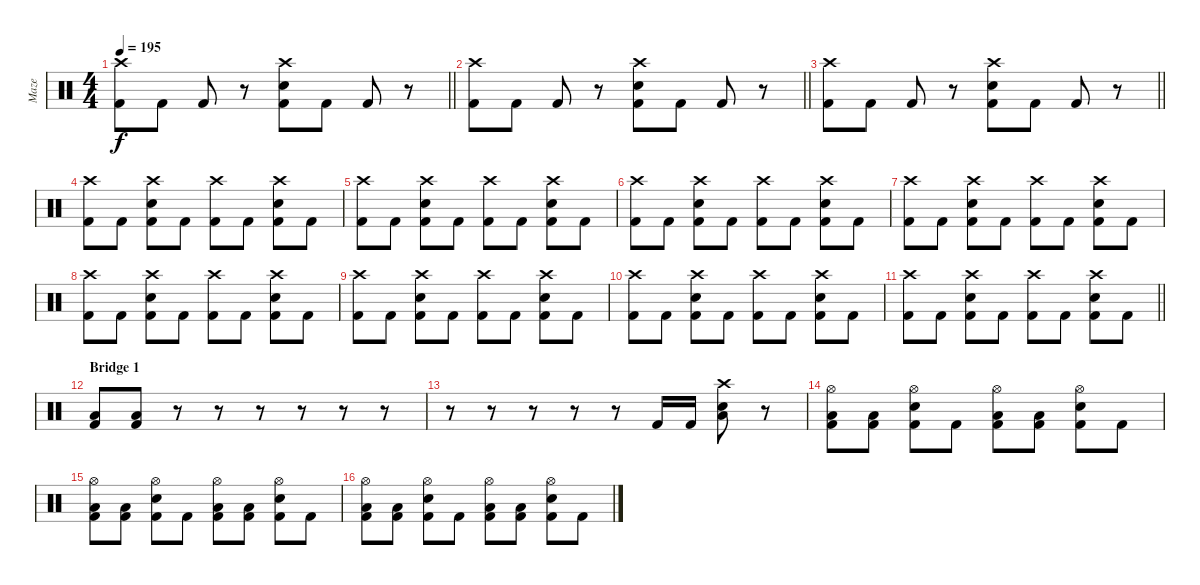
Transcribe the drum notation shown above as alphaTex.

\track ("Maze" "Maze") {instrument percussion}
\staff
\articulation defaults
\ts (4 4)
\tempo 195
\clef neutral
\barLineRight lightlight
\ks c
("Crash high (hit)" "Kick (hit) 2").8{dy f} "Kick (hit) 2".8 "Kick (hit) 2".8 r.8 ("Snare (hit) 2" "Crash high (hit)" "Kick (hit) 2").8 "Kick (hit) 2".8 "Kick (hit) 2".8 r.8 |
\barLineRight lightlight
("Crash high (hit)" "Kick (hit) 2").8 "Kick (hit) 2".8 "Kick (hit) 2".8 r.8 ("Snare (hit) 2" "Crash high (hit)" "Kick (hit) 2").8 "Kick (hit) 2".8 "Kick (hit) 2".8 r.8 |
\barLineRight lightlight
("Crash high (hit)" "Kick (hit) 2").8 "Kick (hit) 2".8 "Kick (hit) 2".8 r.8 ("Snare (hit) 2" "Crash high (hit)" "Kick (hit) 2").8 "Kick (hit) 2".8 "Kick (hit) 2".8 r.8 |
("Crash high (hit)" "Kick (hit) 2").8 "Kick (hit) 2".8 ("Snare (hit) 2" "Crash high (hit)" "Kick (hit) 2").8 "Kick (hit) 2".8 ("Crash high (hit)" "Kick (hit) 2").8 "Kick (hit) 2".8 ("Snare (hit) 2" "Crash high (hit)" "Kick (hit) 2").8 "Kick (hit) 2".8 |
("Crash high (hit)" "Kick (hit) 2").8 "Kick (hit) 2".8 ("Snare (hit) 2" "Crash high (hit)" "Kick (hit) 2").8 "Kick (hit) 2".8 ("Crash high (hit)" "Kick (hit) 2").8 "Kick (hit) 2".8 ("Snare (hit) 2" "Crash high (hit)" "Kick (hit) 2").8 "Kick (hit) 2".8 |
("Crash high (hit)" "Kick (hit) 2").8 "Kick (hit) 2".8 ("Snare (hit) 2" "Crash high (hit)" "Kick (hit) 2").8 "Kick (hit) 2".8 ("Crash high (hit)" "Kick (hit) 2").8 "Kick (hit) 2".8 ("Snare (hit) 2" "Crash high (hit)" "Kick (hit) 2").8 "Kick (hit) 2".8 |
("Crash high (hit)" "Kick (hit) 2").8 "Kick (hit) 2".8 ("Snare (hit) 2" "Crash high (hit)" "Kick (hit) 2").8 "Kick (hit) 2".8 ("Crash high (hit)" "Kick (hit) 2").8 "Kick (hit) 2".8 ("Snare (hit) 2" "Crash high (hit)" "Kick (hit) 2").8 "Kick (hit) 2".8 |
("Crash high (hit)" "Kick (hit) 2").8 "Kick (hit) 2".8 ("Snare (hit) 2" "Crash high (hit)" "Kick (hit) 2").8 "Kick (hit) 2".8 ("Crash high (hit)" "Kick (hit) 2").8 "Kick (hit) 2".8 ("Snare (hit) 2" "Crash high (hit)" "Kick (hit) 2").8 "Kick (hit) 2".8 |
("Crash high (hit)" "Kick (hit) 2").8 "Kick (hit) 2".8 ("Snare (hit) 2" "Crash high (hit)" "Kick (hit) 2").8 "Kick (hit) 2".8 ("Crash high (hit)" "Kick (hit) 2").8 "Kick (hit) 2".8 ("Snare (hit) 2" "Crash high (hit)" "Kick (hit) 2").8 "Kick (hit) 2".8 |
("Crash high (hit)" "Kick (hit) 2").8 "Kick (hit) 2".8 ("Snare (hit) 2" "Crash high (hit)" "Kick (hit) 2").8 "Kick (hit) 2".8 ("Crash high (hit)" "Kick (hit) 2").8 "Kick (hit) 2".8 ("Snare (hit) 2" "Crash high (hit)" "Kick (hit) 2").8 "Kick (hit) 2".8 |
\barLineRight lightlight
("Crash high (hit)" "Kick (hit) 2").8 "Kick (hit) 2".8 ("Snare (hit) 2" "Crash high (hit)" "Kick (hit) 2").8 "Kick (hit) 2".8 ("Crash high (hit)" "Kick (hit) 2").8 "Kick (hit) 2".8 ("Snare (hit) 2" "Crash high (hit)" "Kick (hit) 2").8 "Kick (hit) 2".8 |
\section ("" "Bridge 1")
("Low Tom (hit)" "Kick (hit) 2").8 ("Low Tom (hit)" "Kick (hit) 2").8 r.8 r.8 r.8 r.8 r.8 r.8 |
r.8 r.8 r.8 r.8 r.8 "Kick (hit) 2".16 "Kick (hit) 2".16 ("Crash high (hit)" "Snare (hit) 2" "Low Tom (hit)").8 r.8 |
("Hi-Hat (open)" "Low Tom (hit)" "Kick (hit) 2").8 ("Low Tom (hit)" "Kick (hit) 2").8 ("Snare (hit) 2" "Hi-Hat (open)" "Kick (hit) 2").8 "Kick (hit) 2".8 ("Hi-Hat (open)" "Low Tom (hit)" "Kick (hit) 2").8 ("Low Tom (hit)" "Kick (hit) 2").8 ("Snare (hit) 2" "Hi-Hat (open)" "Kick (hit) 2").8 "Kick (hit) 2".8 |
("Hi-Hat (open)" "Low Tom (hit)" "Kick (hit) 2").8 ("Low Tom (hit)" "Kick (hit) 2").8 ("Snare (hit) 2" "Hi-Hat (open)" "Kick (hit) 2").8 "Kick (hit) 2".8 ("Hi-Hat (open)" "Low Tom (hit)" "Kick (hit) 2").8 ("Low Tom (hit)" "Kick (hit) 2").8 ("Snare (hit) 2" "Hi-Hat (open)" "Kick (hit) 2").8 "Kick (hit) 2".8 |
("Hi-Hat (open)" "Low Tom (hit)" "Kick (hit) 2").8 ("Low Tom (hit)" "Kick (hit) 2").8 ("Snare (hit) 2" "Hi-Hat (open)" "Kick (hit) 2").8 "Kick (hit) 2".8 ("Hi-Hat (open)" "Low Tom (hit)" "Kick (hit) 2").8 ("Low Tom (hit)" "Kick (hit) 2").8 ("Snare (hit) 2" "Hi-Hat (open)" "Kick (hit) 2").8 "Kick (hit) 2".8
